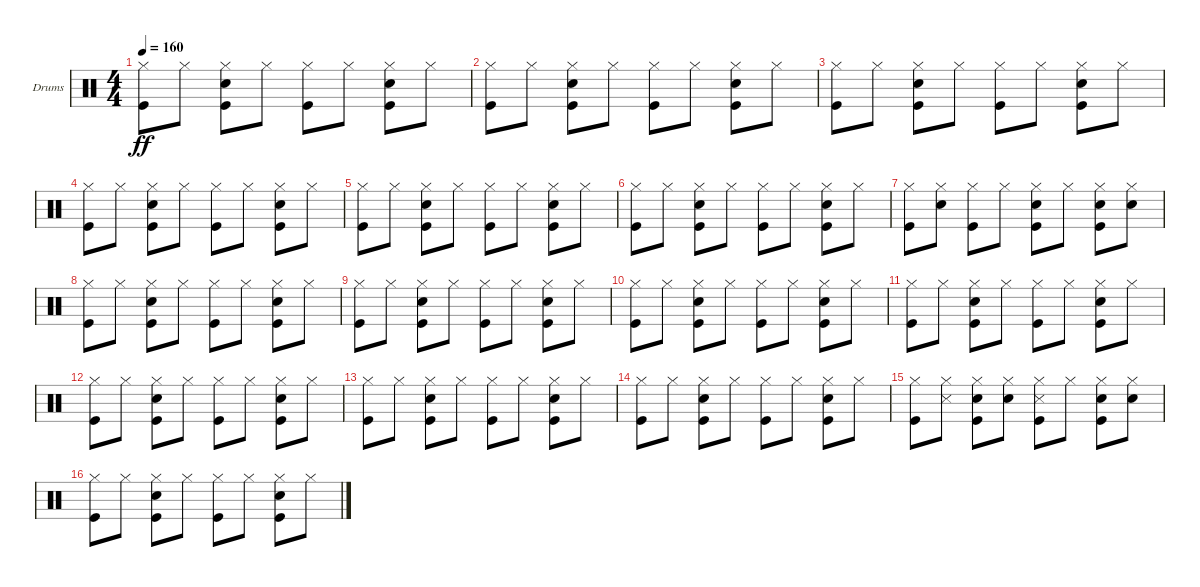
\bracketExtendMode groupsimilarinstruments
\firstSystemTrackNameOrientation horizontal
\otherSystemsTrackNameOrientation horizontal
\track ("Ударные" "Drums") {instrument percussion}
\staff {score}
\articulation defaults
\ts (4 4)
\tempo 160
\clef neutral
\ks c
("Hi-Hat (closed)" "Kick (hit)").8{dy ff} "Hi-Hat (closed)".8 ("Hi-Hat (closed)" "Snare (hit) 2" "Kick (hit)").8 "Hi-Hat (closed)".8 ("Hi-Hat (closed)" "Kick (hit)").8 "Hi-Hat (closed)".8 ("Hi-Hat (closed)" "Snare (hit) 2" "Kick (hit)").8 "Hi-Hat (closed)".8 |
("Hi-Hat (closed)" "Kick (hit)").8 "Hi-Hat (closed)".8 ("Hi-Hat (closed)" "Snare (hit) 2" "Kick (hit)").8 "Hi-Hat (closed)".8 ("Hi-Hat (closed)" "Kick (hit)").8 "Hi-Hat (closed)".8 ("Hi-Hat (closed)" "Snare (hit) 2" "Kick (hit)").8 "Hi-Hat (closed)".8 |
("Hi-Hat (closed)" "Kick (hit)").8 "Hi-Hat (closed)".8 ("Hi-Hat (closed)" "Snare (hit) 2" "Kick (hit)").8 "Hi-Hat (closed)".8 ("Hi-Hat (closed)" "Kick (hit)").8 "Hi-Hat (closed)".8 ("Hi-Hat (closed)" "Snare (hit) 2" "Kick (hit)").8 "Hi-Hat (closed)".8 |
("Hi-Hat (closed)" "Kick (hit)").8 "Hi-Hat (closed)".8 ("Hi-Hat (closed)" "Snare (hit) 2" "Kick (hit)").8 "Hi-Hat (closed)".8 ("Hi-Hat (closed)" "Kick (hit)").8 "Hi-Hat (closed)".8 ("Hi-Hat (closed)" "Snare (hit) 2" "Kick (hit)").8 "Hi-Hat (closed)".8 |
("Hi-Hat (closed)" "Kick (hit)").8 "Hi-Hat (closed)".8 ("Hi-Hat (closed)" "Snare (hit) 2" "Kick (hit)").8 "Hi-Hat (closed)".8 ("Hi-Hat (closed)" "Kick (hit)").8 "Hi-Hat (closed)".8 ("Hi-Hat (closed)" "Snare (hit) 2" "Kick (hit)").8 "Hi-Hat (closed)".8 |
("Hi-Hat (closed)" "Kick (hit)").8 "Hi-Hat (closed)".8 ("Hi-Hat (closed)" "Snare (hit) 2" "Kick (hit)").8 "Hi-Hat (closed)".8 ("Hi-Hat (closed)" "Kick (hit)").8 "Hi-Hat (closed)".8 ("Hi-Hat (closed)" "Snare (hit) 2" "Kick (hit)").8 "Hi-Hat (closed)".8 |
("Hi-Hat (closed)" "Kick (hit)").8 ("Hi-Hat (closed)" "Snare (hit) 2").8 ("Hi-Hat (closed)" "Kick (hit)").8 "Hi-Hat (closed)".8 ("Hi-Hat (closed)" "Snare (hit) 2" "Kick (hit)").8 "Hi-Hat (closed)".8 ("Hi-Hat (closed)" "Snare (hit) 2" "Kick (hit)").8 ("Hi-Hat (closed)" "Snare (hit) 2").8 |
("Hi-Hat (closed)" "Kick (hit)").8 "Hi-Hat (closed)".8 ("Hi-Hat (closed)" "Snare (hit) 2" "Kick (hit)").8 "Hi-Hat (closed)".8 ("Hi-Hat (closed)" "Kick (hit)").8 "Hi-Hat (closed)".8 ("Hi-Hat (closed)" "Snare (hit) 2" "Kick (hit)").8 "Hi-Hat (closed)".8 |
("Hi-Hat (closed)" "Kick (hit)").8 "Hi-Hat (closed)".8 ("Hi-Hat (closed)" "Snare (hit) 2" "Kick (hit)").8 "Hi-Hat (closed)".8 ("Hi-Hat (closed)" "Kick (hit)").8 "Hi-Hat (closed)".8 ("Hi-Hat (closed)" "Snare (hit) 2" "Kick (hit)").8 "Hi-Hat (closed)".8 |
("Hi-Hat (closed)" "Kick (hit)").8 "Hi-Hat (closed)".8 ("Hi-Hat (closed)" "Snare (hit) 2" "Kick (hit)").8 "Hi-Hat (closed)".8 ("Hi-Hat (closed)" "Kick (hit)").8 "Hi-Hat (closed)".8 ("Hi-Hat (closed)" "Snare (hit) 2" "Kick (hit)").8 "Hi-Hat (closed)".8 |
("Hi-Hat (closed)" "Kick (hit)").8 "Hi-Hat (closed)".8 ("Hi-Hat (closed)" "Snare (hit) 2" "Kick (hit)").8 "Hi-Hat (closed)".8 ("Hi-Hat (closed)" "Kick (hit)").8 "Hi-Hat (closed)".8 ("Hi-Hat (closed)" "Snare (hit) 2" "Kick (hit)").8 "Hi-Hat (closed)".8 |
("Hi-Hat (closed)" "Kick (hit)").8 "Hi-Hat (closed)".8 ("Hi-Hat (closed)" "Snare (hit) 2" "Kick (hit)").8 "Hi-Hat (closed)".8 ("Hi-Hat (closed)" "Kick (hit)").8 "Hi-Hat (closed)".8 ("Hi-Hat (closed)" "Snare (hit) 2" "Kick (hit)").8 "Hi-Hat (closed)".8 |
("Hi-Hat (closed)" "Kick (hit)").8 "Hi-Hat (closed)".8 ("Hi-Hat (closed)" "Snare (hit) 2" "Kick (hit)").8 "Hi-Hat (closed)".8 ("Hi-Hat (closed)" "Kick (hit)").8 "Hi-Hat (closed)".8 ("Hi-Hat (closed)" "Snare (hit) 2" "Kick (hit)").8 "Hi-Hat (closed)".8 |
("Hi-Hat (closed)" "Kick (hit)").8 "Hi-Hat (closed)".8 ("Hi-Hat (closed)" "Snare (hit) 2" "Kick (hit)").8 "Hi-Hat (closed)".8 ("Hi-Hat (closed)" "Kick (hit)").8 "Hi-Hat (closed)".8 ("Hi-Hat (closed)" "Snare (hit) 2" "Kick (hit)").8 "Hi-Hat (closed)".8 |
("Hi-Hat (closed)" "Kick (hit)").8 ("Hi-Hat (closed)" "Snare (side stick) 3").8 ("Hi-Hat (closed)" "Snare (hit) 2" "Kick (hit)").8 ("Hi-Hat (closed)" "Snare (hit) 2").8 ("Hi-Hat (closed)" "Snare (side stick) 3" "Kick (hit)").8 "Hi-Hat (closed)".8 ("Hi-Hat (closed)" "Snare (hit) 2" "Kick (hit)").8 ("Hi-Hat (closed)" "Snare (hit) 2").8 |
("Hi-Hat (closed)" "Kick (hit)").8 "Hi-Hat (closed)".8 ("Hi-Hat (closed)" "Snare (hit) 2" "Kick (hit)").8 "Hi-Hat (closed)".8 ("Hi-Hat (closed)" "Kick (hit)").8 "Hi-Hat (closed)".8 ("Hi-Hat (closed)" "Snare (hit) 2" "Kick (hit)").8 "Hi-Hat (closed)".8
